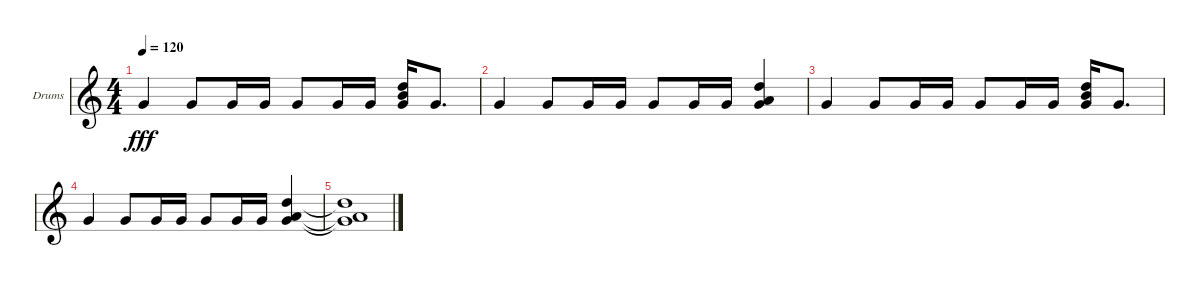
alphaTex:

\defaultSystemsLayout 4
\bracketExtendMode groupsimilarinstruments
\firstSystemTrackNameOrientation horizontal
\otherSystemsTrackNameOrientation horizontal
\track ("Drumkit" "Drums") {instrument percussion}
\staff {score}
\articulation defaults
\ts (4 4)
\tempo 120
\clef g2
\ks c "Very Low Tom (hit)".4{dy fff} "Very Low Tom (hit)".8 "Very Low Tom (hit)".16 "Very Low Tom (hit)".16 "Very Low Tom (hit)".8 "Very Low Tom (hit)".16 "Very Low Tom (hit)".16
("Very Low Tom (hit)" "High Tom (hit)" "Mid Tom (hit)").16 "Very Low Tom (hit)".8{d} |
"Very Low Tom (hit)".4 "Very Low Tom (hit)".8 "Very Low Tom (hit)".16 "Very Low Tom (hit)".16 "Very Low Tom (hit)".8 "Very Low Tom (hit)".16 "Very Low Tom (hit)".16 ("Very Low Tom (hit)" "Low Tom (hit)" "High Tom (hit)").4 |
"Very Low Tom (hit)".4 "Very Low Tom (hit)".8 "Very Low Tom (hit)".16 "Very Low Tom (hit)".16 "Very Low Tom (hit)".8 "Very Low Tom (hit)".16 "Very Low Tom (hit)".16 ("Very Low Tom (hit)" "High Tom (hit)" "Mid Tom (hit)").16 "Very Low Tom (hit)".8{d} |
"Very Low Tom (hit)".4 "Very Low Tom (hit)".8 "Very Low Tom (hit)".16 "Very Low Tom (hit)".16 "Very Low Tom (hit)".8 "Very Low Tom (hit)".16 "Very Low Tom (hit)".16 ("Very Low Tom (hit)" "Low Tom (hit)" "High Tom (hit)").4 |
("Very Low Tom (hit)"{t} "Low Tom (hit)"{t} "High Tom (hit)"{t}).1
